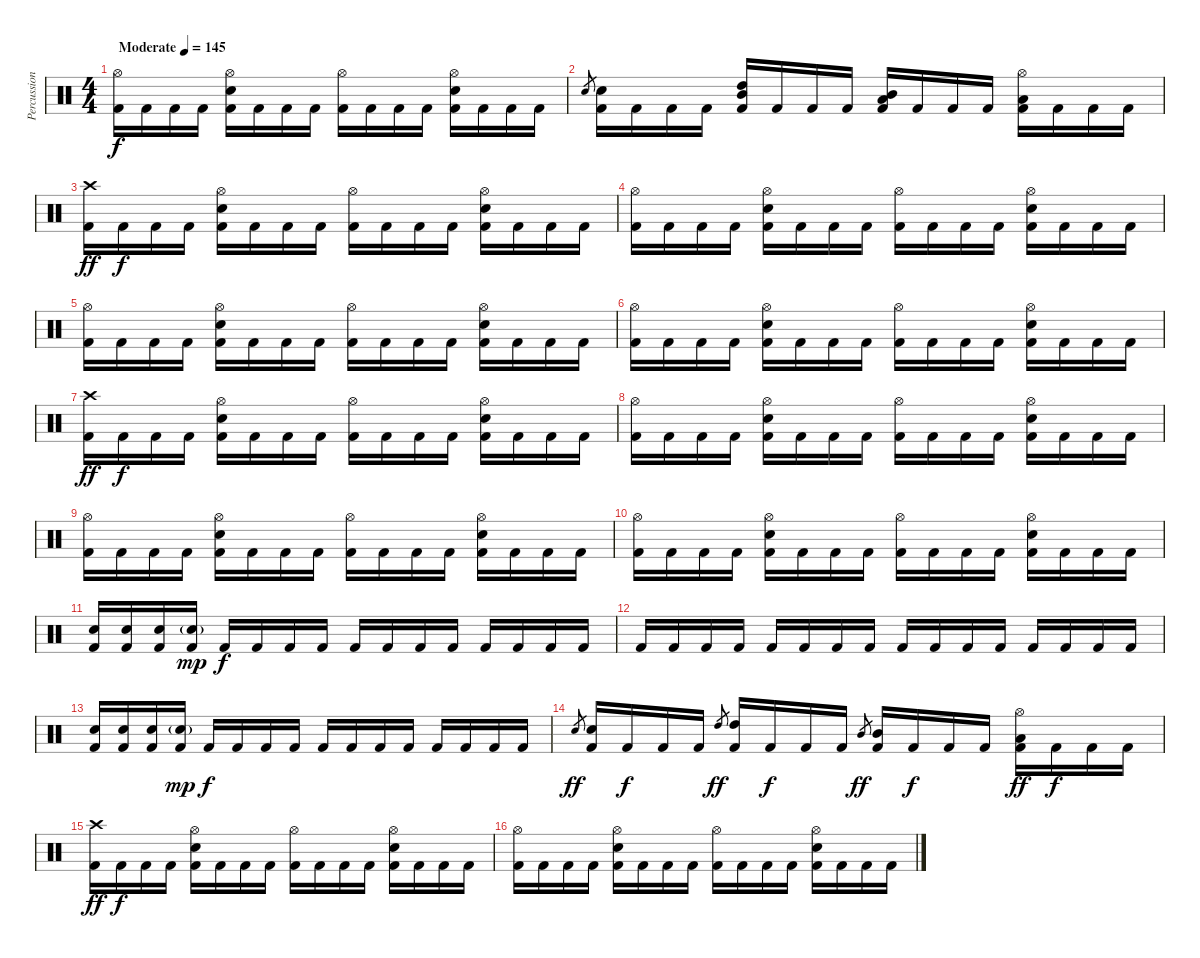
\track ("Percussion" "Percussion") {instrument percussion}
\staff {score}
\articulation defaults
\ts (4 4)
\tempo (145 "Moderate")
\clef neutral
\ks c
("Hi-Hat (open)" "Kick (hit) 2").16{dy f} "Kick (hit) 2".16 "Kick (hit) 2".16 "Kick (hit) 2".16 ("Hi-Hat (open)" "Snare (hit) 2" "Kick (hit) 2").16 "Kick (hit) 2".16 "Kick (hit) 2".16 "Kick (hit) 2".16 ("Hi-Hat (open)" "Kick (hit) 2").16 "Kick (hit) 2".16 "Kick (hit) 2".16 "Kick (hit) 2".16 ("Hi-Hat (open)" "Snare (hit) 2" "Kick (hit) 2").16 "Kick (hit) 2".16 "Kick (hit) 2".16 "Kick (hit) 2".16 |
"Snare (hit) 2".8{gr} ("Snare (hit) 2" "Kick (hit) 2").16{beam Down} "Kick (hit) 2".16{beam Down} "Kick (hit) 2".16{beam Down} "Kick (hit) 2".16{beam Down} ("Mid Tom (hit)" "High Tom (hit)" "Kick (hit) 2").16 "Kick (hit) 2".16 "Kick (hit) 2".16 "Kick (hit) 2".16 ("Low Tom (hit)" "Mid Tom (hit)" "Kick (hit) 2").16 "Kick (hit) 2".16 "Kick (hit) 2".16 "Kick (hit) 2".16 ("Hi-Hat (open)" "Low Tom (hit)" "Kick (hit) 2").16 "Kick (hit) 2".16 "Kick (hit) 2".16 "Kick (hit) 2".16 |
("Crash high (hit)" "Kick (hit) 2").16{dy ff} "Kick (hit) 2".16{dy f} "Kick (hit) 2".16 "Kick (hit) 2".16 ("Hi-Hat (open)" "Snare (hit) 2" "Kick (hit) 2").16 "Kick (hit) 2".16 "Kick (hit) 2".16 "Kick (hit) 2".16 ("Hi-Hat (open)" "Kick (hit) 2").16 "Kick (hit) 2".16 "Kick (hit) 2".16 "Kick (hit) 2".16 ("Hi-Hat (open)" "Snare (hit) 2" "Kick (hit) 2").16 "Kick (hit) 2".16 "Kick (hit) 2".16 "Kick (hit) 2".16 |
("Hi-Hat (open)" "Kick (hit) 2").16 "Kick (hit) 2".16 "Kick (hit) 2".16 "Kick (hit) 2".16 ("Hi-Hat (open)" "Snare (hit) 2" "Kick (hit) 2").16 "Kick (hit) 2".16 "Kick (hit) 2".16 "Kick (hit) 2".16 ("Hi-Hat (open)" "Kick (hit) 2").16 "Kick (hit) 2".16 "Kick (hit) 2".16 "Kick (hit) 2".16 ("Hi-Hat (open)" "Snare (hit) 2" "Kick (hit) 2").16 "Kick (hit) 2".16 "Kick (hit) 2".16 "Kick (hit) 2".16 |
("Hi-Hat (open)" "Kick (hit) 2").16 "Kick (hit) 2".16 "Kick (hit) 2".16 "Kick (hit) 2".16 ("Hi-Hat (open)" "Snare (hit) 2" "Kick (hit) 2").16 "Kick (hit) 2".16 "Kick (hit) 2".16 "Kick (hit) 2".16 ("Hi-Hat (open)" "Kick (hit) 2").16 "Kick (hit) 2".16 "Kick (hit) 2".16 "Kick (hit) 2".16 ("Hi-Hat (open)" "Snare (hit) 2" "Kick (hit) 2").16 "Kick (hit) 2".16 "Kick (hit) 2".16 "Kick (hit) 2".16 |
("Hi-Hat (open)" "Kick (hit) 2").16 "Kick (hit) 2".16 "Kick (hit) 2".16 "Kick (hit) 2".16 ("Hi-Hat (open)" "Snare (hit) 2" "Kick (hit) 2").16 "Kick (hit) 2".16 "Kick (hit) 2".16 "Kick (hit) 2".16 ("Hi-Hat (open)" "Kick (hit) 2").16 "Kick (hit) 2".16 "Kick (hit) 2".16 "Kick (hit) 2".16 ("Hi-Hat (open)" "Snare (hit) 2" "Kick (hit) 2").16 "Kick (hit) 2".16 "Kick (hit) 2".16 "Kick (hit) 2".16 |
("Crash high (hit)" "Kick (hit) 2").16{dy ff} "Kick (hit) 2".16{dy f} "Kick (hit) 2".16 "Kick (hit) 2".16 ("Hi-Hat (open)" "Snare (hit) 2" "Kick (hit) 2").16 "Kick (hit) 2".16 "Kick (hit) 2".16 "Kick (hit) 2".16 ("Hi-Hat (open)" "Kick (hit) 2").16 "Kick (hit) 2".16 "Kick (hit) 2".16 "Kick (hit) 2".16 ("Hi-Hat (open)" "Snare (hit) 2" "Kick (hit) 2").16 "Kick (hit) 2".16 "Kick (hit) 2".16 "Kick (hit) 2".16 |
("Hi-Hat (open)" "Kick (hit) 2").16 "Kick (hit) 2".16 "Kick (hit) 2".16 "Kick (hit) 2".16 ("Hi-Hat (open)" "Snare (hit) 2" "Kick (hit) 2").16 "Kick (hit) 2".16 "Kick (hit) 2".16 "Kick (hit) 2".16 ("Hi-Hat (open)" "Kick (hit) 2").16 "Kick (hit) 2".16 "Kick (hit) 2".16 "Kick (hit) 2".16 ("Hi-Hat (open)" "Snare (hit) 2" "Kick (hit) 2").16 "Kick (hit) 2".16 "Kick (hit) 2".16 "Kick (hit) 2".16 |
("Hi-Hat (open)" "Kick (hit) 2").16 "Kick (hit) 2".16 "Kick (hit) 2".16 "Kick (hit) 2".16 ("Hi-Hat (open)" "Snare (hit) 2" "Kick (hit) 2").16 "Kick (hit) 2".16 "Kick (hit) 2".16 "Kick (hit) 2".16 ("Hi-Hat (open)" "Kick (hit) 2").16 "Kick (hit) 2".16 "Kick (hit) 2".16 "Kick (hit) 2".16 ("Hi-Hat (open)" "Snare (hit) 2" "Kick (hit) 2").16 "Kick (hit) 2".16 "Kick (hit) 2".16 "Kick (hit) 2".16 |
("Hi-Hat (open)" "Kick (hit) 2").16 "Kick (hit) 2".16 "Kick (hit) 2".16 "Kick (hit) 2".16 ("Hi-Hat (open)" "Snare (hit) 2" "Kick (hit) 2").16 "Kick (hit) 2".16 "Kick (hit) 2".16 "Kick (hit) 2".16 ("Hi-Hat (open)" "Kick (hit) 2").16 "Kick (hit) 2".16 "Kick (hit) 2".16 "Kick (hit) 2".16 ("Hi-Hat (open)" "Snare (hit) 2" "Kick (hit) 2").16 "Kick (hit) 2".16 "Kick (hit) 2".16 "Kick (hit) 2".16 |
("Snare (hit) 2" "Kick (hit) 2").16 ("Snare (hit) 2" "Kick (hit) 2").16 ("Snare (hit) 2" "Kick (hit) 2").16 ("Snare (hit) 2"{g} "Kick (hit) 2").16{dy mp} "Kick (hit) 2".16{dy f} "Kick (hit) 2".16 "Kick (hit) 2".16 "Kick (hit) 2".16 "Kick (hit) 2".16 "Kick (hit) 2".16 "Kick (hit) 2".16 "Kick (hit) 2".16 "Kick (hit) 2".16 "Kick (hit) 2".16 "Kick (hit) 2".16 "Kick (hit) 2".16 |
"Kick (hit) 2".16 "Kick (hit) 2".16 "Kick (hit) 2".16 "Kick (hit) 2".16 "Kick (hit) 2".16 "Kick (hit) 2".16 "Kick (hit) 2".16 "Kick (hit) 2".16 "Kick (hit) 2".16 "Kick (hit) 2".16 "Kick (hit) 2".16 "Kick (hit) 2".16 "Kick (hit) 2".16 "Kick (hit) 2".16 "Kick (hit) 2".16 "Kick (hit) 2".16 |
("Snare (hit) 2" "Kick (hit) 2").16 ("Snare (hit) 2" "Kick (hit) 2").16 ("Snare (hit) 2" "Kick (hit) 2").16 ("Snare (hit) 2"{g} "Kick (hit) 2").16{dy mp} "Kick (hit) 2".16{dy f} "Kick (hit) 2".16 "Kick (hit) 2".16 "Kick (hit) 2".16 "Kick (hit) 2".16 "Kick (hit) 2".16 "Kick (hit) 2".16 "Kick (hit) 2".16 "Kick (hit) 2".16 "Kick (hit) 2".16 "Kick (hit) 2".16 "Kick (hit) 2".16 |
"Snare (hit) 2".8{gr dy ff} ("Snare (hit) 2" "Kick (hit) 2").16 "Kick (hit) 2".16{dy f} "Kick (hit) 2".16 "Kick (hit) 2".16 "High Tom (hit)".8{gr dy ff} ("High Tom (hit)" "Kick (hit) 2").16 "Kick (hit) 2".16{dy f} "Kick (hit) 2".16 "Kick (hit) 2".16 "Mid Tom (hit)".8{gr dy ff} ("Mid Tom (hit)" "Kick (hit) 2").16 "Kick (hit) 2".16{dy f} "Kick (hit) 2".16 "Kick (hit) 2".16 ("Hi-Hat (open)" "Low Tom (hit)" "Kick (hit) 2").16{dy ff} "Kick (hit) 2".16{dy f} "Kick (hit) 2".16 "Kick (hit) 2".16 |
("Crash high (hit)" "Kick (hit) 2").16{dy ff} "Kick (hit) 2".16{dy f} "Kick (hit) 2".16 "Kick (hit) 2".16 ("Hi-Hat (open)" "Snare (hit) 2" "Kick (hit) 2").16 "Kick (hit) 2".16 "Kick (hit) 2".16 "Kick (hit) 2".16 ("Hi-Hat (open)" "Kick (hit) 2").16 "Kick (hit) 2".16 "Kick (hit) 2".16 "Kick (hit) 2".16 ("Hi-Hat (open)" "Snare (hit) 2" "Kick (hit) 2").16 "Kick (hit) 2".16 "Kick (hit) 2".16 "Kick (hit) 2".16 |
("Hi-Hat (open)" "Kick (hit) 2").16 "Kick (hit) 2".16 "Kick (hit) 2".16 "Kick (hit) 2".16 ("Hi-Hat (open)" "Snare (hit) 2" "Kick (hit) 2").16 "Kick (hit) 2".16 "Kick (hit) 2".16 "Kick (hit) 2".16 ("Hi-Hat (open)" "Kick (hit) 2").16 "Kick (hit) 2".16 "Kick (hit) 2".16 "Kick (hit) 2".16 ("Hi-Hat (open)" "Snare (hit) 2" "Kick (hit) 2").16 "Kick (hit) 2".16 "Kick (hit) 2".16 "Kick (hit) 2".16
